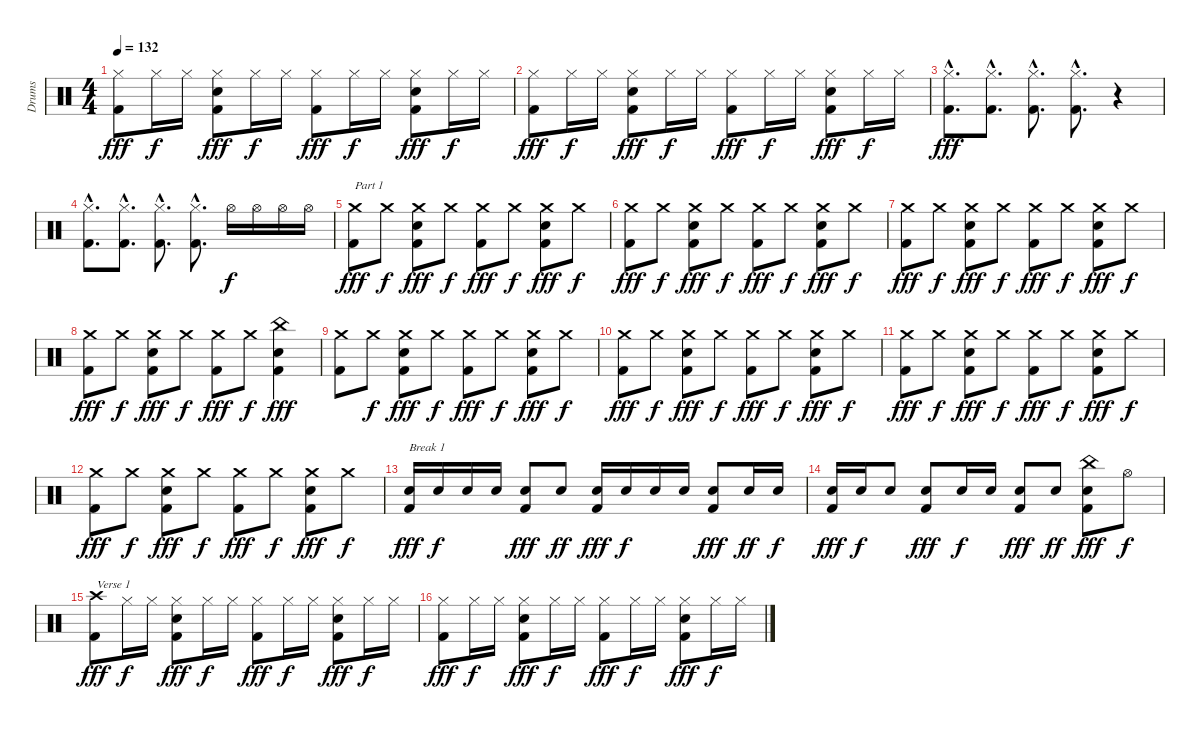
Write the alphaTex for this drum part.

\track ("Drums" "Drums") {instrument percussion}
\staff {score}
\articulation defaults
\ts (4 4)
\tempo 132
\clef neutral
\ks c
("Hi-Hat (closed)" "Kick (hit) 2").8{dy fff} "Hi-Hat (closed)".16{dy f} "Hi-Hat (closed)".16 ("Hi-Hat (closed)" "Snare (hit) 2" "Kick (hit) 2").8{dy fff} "Hi-Hat (closed)".16{dy f} "Hi-Hat (closed)".16 ("Hi-Hat (closed)" "Kick (hit) 2").8{dy fff} "Hi-Hat (closed)".16{dy f} "Hi-Hat (closed)".16 ("Hi-Hat (closed)" "Snare (hit) 2" "Kick (hit) 2").8{dy fff} "Hi-Hat (closed)".16{dy f} "Hi-Hat (closed)".16 |
("Hi-Hat (closed)" "Kick (hit) 2").8{dy fff} "Hi-Hat (closed)".16{dy f} "Hi-Hat (closed)".16 ("Hi-Hat (closed)" "Snare (hit) 2" "Kick (hit) 2").8{dy fff} "Hi-Hat (closed)".16{dy f} "Hi-Hat (closed)".16 ("Hi-Hat (closed)" "Kick (hit) 2").8{dy fff} "Hi-Hat (closed)".16{dy f} "Hi-Hat (closed)".16 ("Hi-Hat (closed)" "Snare (hit) 2" "Kick (hit) 2").8{dy fff} "Hi-Hat (closed)".16{dy f} "Hi-Hat (closed)".16 |
("Hi-Hat (closed)"{hac} "Kick (hit) 2"{hac}).8{d dy fff} ("Hi-Hat (closed)"{hac} "Kick (hit) 2"{hac}).8{d} ("Hi-Hat (closed)"{hac} "Kick (hit) 2"{hac}).8{d} ("Hi-Hat (closed)"{hac} "Kick (hit) 2"{hac}).8{d} r.4 |
("Hi-Hat (closed)"{hac} "Kick (hit) 2"{hac}).8{d} ("Hi-Hat (closed)"{hac} "Kick (hit) 2"{hac}).8{d} ("Hi-Hat (closed)"{hac} "Kick (hit) 2"{hac}).8{d} ("Hi-Hat (closed)"{hac} "Kick (hit) 2"{hac}).8{d} "Hi-Hat (open)".16{dy f} "Hi-Hat (open)".16 "Hi-Hat (open)".16 "Hi-Hat (open)".16 |
("Crash medium (hit)" "Kick (hit) 2").8{txt "Part 1" dy fff} "Crash medium (hit)".8{dy f} ("Crash medium (hit)" "Snare (hit) 2" "Kick (hit) 2").8{dy fff} "Crash medium (hit)".8{dy f} ("Crash medium (hit)" "Kick (hit) 2").8{dy fff} "Crash medium (hit)".8{dy f} ("Crash medium (hit)" "Snare (hit) 2" "Kick (hit) 2").8{dy fff} "Crash medium (hit)".8{dy f} |
("Crash medium (hit)" "Kick (hit) 2").8{dy fff} "Crash medium (hit)".8{dy f} ("Crash medium (hit)" "Snare (hit) 2" "Kick (hit) 2").8{dy fff} "Crash medium (hit)".8{dy f} ("Crash medium (hit)" "Kick (hit) 2").8{dy fff} "Crash medium (hit)".8{dy f} ("Crash medium (hit)" "Snare (hit) 2" "Kick (hit) 2").8{dy fff} "Crash medium (hit)".8{dy f} |
("Crash medium (hit)" "Kick (hit) 2").8{dy fff} "Crash medium (hit)".8{dy f} ("Crash medium (hit)" "Snare (hit) 2" "Kick (hit) 2").8{dy fff} "Crash medium (hit)".8{dy f} ("Crash medium (hit)" "Kick (hit) 2").8{dy fff} "Crash medium (hit)".8{dy f} ("Crash medium (hit)" "Snare (hit) 2" "Kick (hit) 2").8{dy fff} "Crash medium (hit)".8{dy f} |
("Crash medium (hit)" "Kick (hit) 2").8{dy fff} "Crash medium (hit)".8{dy f} ("Crash medium (hit)" "Snare (hit) 2" "Kick (hit) 2").8{dy fff} "Crash medium (hit)".8{dy f} ("Crash medium (hit)" "Kick (hit) 2").8{dy fff} "Crash medium (hit)".8{dy f} ("China (hit)" "Snare (hit) 2" "Kick (hit) 2").4{dy fff} |
("Crash medium (hit)" "Kick (hit) 2").8 "Crash medium (hit)".8{dy f} ("Crash medium (hit)" "Snare (hit) 2" "Kick (hit) 2").8{dy fff} "Crash medium (hit)".8{dy f} ("Crash medium (hit)" "Kick (hit) 2").8{dy fff} "Crash medium (hit)".8{dy f} ("Crash medium (hit)" "Snare (hit) 2" "Kick (hit) 2").8{dy fff} "Crash medium (hit)".8{dy f} |
("Crash medium (hit)" "Kick (hit) 2").8{dy fff} "Crash medium (hit)".8{dy f} ("Crash medium (hit)" "Snare (hit) 2" "Kick (hit) 2").8{dy fff} "Crash medium (hit)".8{dy f} ("Crash medium (hit)" "Kick (hit) 2").8{dy fff} "Crash medium (hit)".8{dy f} ("Crash medium (hit)" "Snare (hit) 2" "Kick (hit) 2").8{dy fff} "Crash medium (hit)".8{dy f} |
("Crash medium (hit)" "Kick (hit) 2").8{dy fff} "Crash medium (hit)".8{dy f} ("Crash medium (hit)" "Snare (hit) 2" "Kick (hit) 2").8{dy fff} "Crash medium (hit)".8{dy f} ("Crash medium (hit)" "Kick (hit) 2").8{dy fff} "Crash medium (hit)".8{dy f} ("Crash medium (hit)" "Snare (hit) 2" "Kick (hit) 2").8{dy fff} "Crash medium (hit)".8{dy f} |
("Crash medium (hit)" "Kick (hit) 2").8{dy fff} "Crash medium (hit)".8{dy f} ("Crash medium (hit)" "Snare (hit) 2" "Kick (hit) 2").8{dy fff} "Crash medium (hit)".8{dy f} ("Crash medium (hit)" "Kick (hit) 2").8{dy fff} "Crash medium (hit)".8{dy f} ("Crash medium (hit)" "Snare (hit) 2" "Kick (hit) 2").8{dy fff} "Crash medium (hit)".8{dy f} |
("Snare (hit) 2" "Kick (hit) 2").16{txt "Break 1" dy fff} "Snare (hit) 2".16{dy f} "Snare (hit) 2".16 "Snare (hit) 2".16 ("Snare (hit) 2" "Kick (hit) 2").8{dy fff} "Snare (hit) 2".8{dy ff} ("Snare (hit) 2" "Kick (hit) 2").16{dy fff} "Snare (hit) 2".16{dy f} "Snare (hit) 2".16 "Snare (hit) 2".16 ("Snare (hit) 2" "Kick (hit) 2").8{dy fff} "Snare (hit) 2".16{dy ff} "Snare (hit) 2".16{dy f} |
("Snare (hit) 2" "Kick (hit) 2").16{dy fff} "Snare (hit) 2".16{dy f} "Snare (hit) 2".8 ("Snare (hit) 2" "Kick (hit) 2").8{dy fff} "Snare (hit) 2".16{dy f} "Snare (hit) 2".16 ("Snare (hit) 2" "Kick (hit) 2").8{dy fff} "Snare (hit) 2".8{dy ff} ("China (hit)" "Snare (hit) 2" "Kick (hit) 2").8{dy fff} "Hi-Hat (open)".8{dy f} |
("Crash high (hit)" "Kick (hit) 2").8{txt "Verse 1" dy fff} "Hi-Hat (closed)".16{dy f} "Hi-Hat (closed)".16 ("Hi-Hat (closed)" "Snare (hit) 2" "Kick (hit) 2").8{dy fff} "Hi-Hat (closed)".16{dy f} "Hi-Hat (closed)".16 ("Hi-Hat (closed)" "Kick (hit) 2").8{dy fff} "Hi-Hat (closed)".16{dy f} "Hi-Hat (closed)".16 ("Hi-Hat (closed)" "Snare (hit) 2" "Kick (hit) 2").8{dy fff} "Hi-Hat (closed)".16{dy f} "Hi-Hat (closed)".16 |
("Hi-Hat (closed)" "Kick (hit) 2").8{dy fff} "Hi-Hat (closed)".16{dy f} "Hi-Hat (closed)".16 ("Hi-Hat (closed)" "Snare (hit) 2" "Kick (hit) 2").8{dy fff} "Hi-Hat (closed)".16{dy f} "Hi-Hat (closed)".16 ("Hi-Hat (closed)" "Kick (hit) 2").8{dy fff} "Hi-Hat (closed)".16{dy f} "Hi-Hat (closed)".16 ("Hi-Hat (closed)" "Snare (hit) 2" "Kick (hit) 2").8{dy fff} "Hi-Hat (closed)".16{dy f} "Hi-Hat (closed)".16
